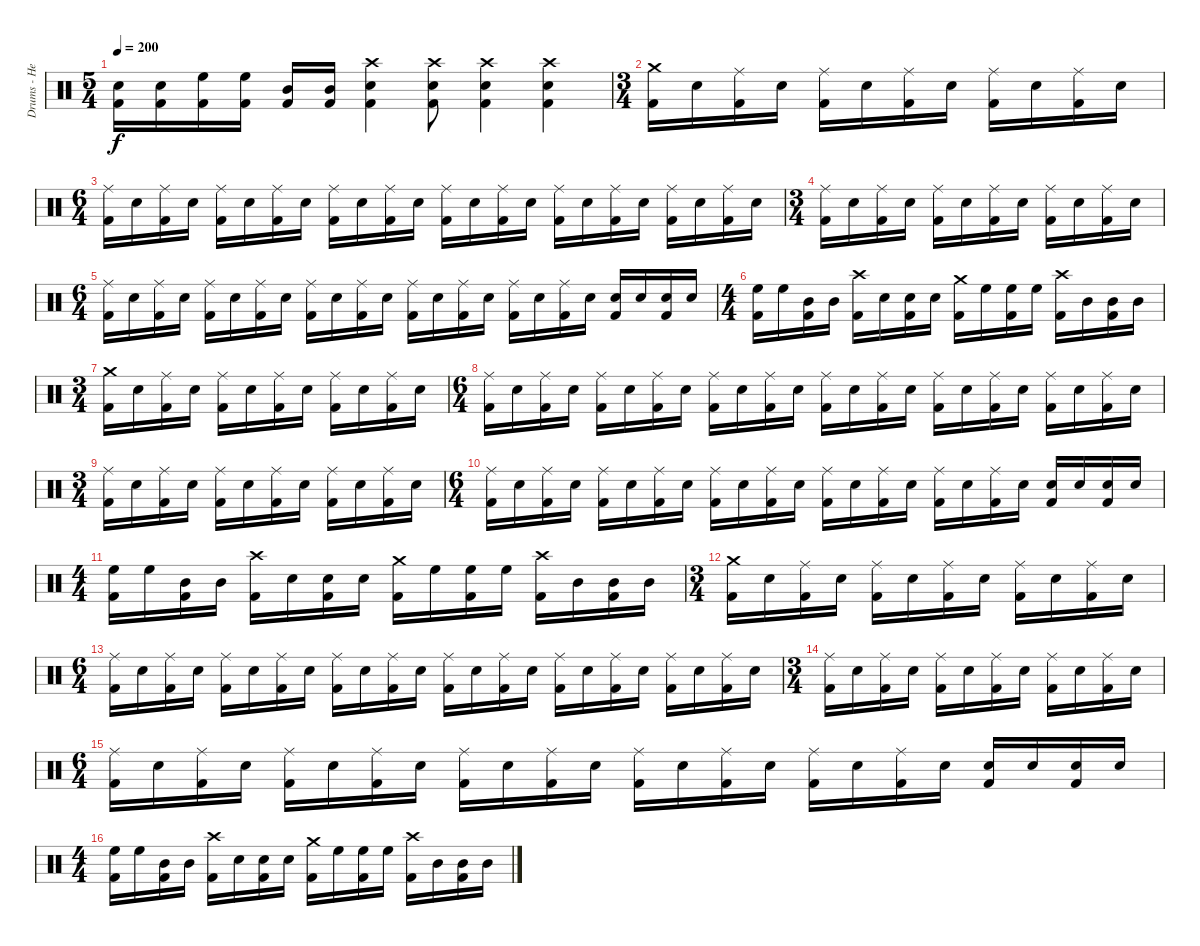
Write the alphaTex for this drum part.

\track ("Drums - Hellhammer" "Drums - He") {instrument percussion}
\staff {score}
\articulation defaults
\ts (5 4)
\tempo 200
\clef neutral
\ks c
("Electric Snare (hit)" "Kick (hit) 2").16{dy f} ("Electric Snare (hit)" "Kick (hit) 2").16 ("High Floor Tom (hit)" "Kick (hit) 2").16 ("High Floor Tom (hit)" "Kick (hit) 2").16 ("Mid Tom (hit)" "Kick (hit) 2").16 ("Mid Tom (hit)" "Kick (hit) 2").16 ("Crash high (hit)" "Electric Snare (hit)" "Kick (hit) 2").4 ("Crash high (hit)" "Electric Snare (hit)" "Kick (hit) 2").8 ("Crash high (hit)" "Electric Snare (hit)" "Kick (hit) 2").4 ("Crash high (hit)" "Electric Snare (hit)" "Kick (hit) 2").4 |
\ts (3 4)
("Crash medium (hit)" "Kick (hit) 2").16 "Electric Snare (hit)".16 ("Ride (middle)" "Kick (hit) 2").16 "Electric Snare (hit)".16 ("Ride (middle)" "Kick (hit) 2").16 "Electric Snare (hit)".16 ("Ride (middle)" "Kick (hit) 2").16 "Electric Snare (hit)".16 ("Ride (middle)" "Kick (hit) 2").16 "Electric Snare (hit)".16 ("Ride (middle)" "Kick (hit) 2").16 "Electric Snare (hit)".16 |
\ts (6 4)
("Ride (middle)" "Kick (hit) 2").16 "Electric Snare (hit)".16 ("Ride (middle)" "Kick (hit) 2").16 "Electric Snare (hit)".16 ("Ride (middle)" "Kick (hit) 2").16 "Electric Snare (hit)".16 ("Ride (middle)" "Kick (hit) 2").16 "Electric Snare (hit)".16 ("Ride (middle)" "Kick (hit) 2").16 "Electric Snare (hit)".16 ("Ride (middle)" "Kick (hit) 2").16 "Electric Snare (hit)".16 ("Ride (middle)" "Kick (hit) 2").16 "Electric Snare (hit)".16 ("Ride (middle)" "Kick (hit) 2").16 "Electric Snare (hit)".16 ("Ride (middle)" "Kick (hit) 2").16 "Electric Snare (hit)".16 ("Ride (middle)" "Kick (hit) 2").16 "Electric Snare (hit)".16 ("Ride (middle)" "Kick (hit) 2").16 "Electric Snare (hit)".16 ("Ride (middle)" "Kick (hit) 2").16 "Electric Snare (hit)".16 |
\ts (3 4)
("Ride (middle)" "Kick (hit) 2").16 "Electric Snare (hit)".16 ("Ride (middle)" "Kick (hit) 2").16 "Electric Snare (hit)".16 ("Ride (middle)" "Kick (hit) 2").16 "Electric Snare (hit)".16 ("Ride (middle)" "Kick (hit) 2").16 "Electric Snare (hit)".16 ("Ride (middle)" "Kick (hit) 2").16 "Electric Snare (hit)".16 ("Ride (middle)" "Kick (hit) 2").16 "Electric Snare (hit)".16 |
\ts (6 4)
("Ride (middle)" "Kick (hit) 2").16 "Electric Snare (hit)".16 ("Ride (middle)" "Kick (hit) 2").16 "Electric Snare (hit)".16 ("Ride (middle)" "Kick (hit) 2").16 "Electric Snare (hit)".16 ("Ride (middle)" "Kick (hit) 2").16 "Electric Snare (hit)".16 ("Ride (middle)" "Kick (hit) 2").16 "Electric Snare (hit)".16 ("Ride (middle)" "Kick (hit) 2").16 "Electric Snare (hit)".16 ("Ride (middle)" "Kick (hit) 2").16 "Electric Snare (hit)".16 ("Ride (middle)" "Kick (hit) 2").16 "Electric Snare (hit)".16 ("Ride (middle)" "Kick (hit) 2").16 "Electric Snare (hit)".16 ("Ride (middle)" "Kick (hit) 2").16 "Electric Snare (hit)".16 ("Electric Snare (hit)" "Kick (hit) 2").16 "Electric Snare (hit)".16 ("Electric Snare (hit)" "Kick (hit) 2").16 "Electric Snare (hit)".16 |
\ts (4 4)
("High Floor Tom (hit)" "Kick (hit) 2").16 "High Floor Tom (hit)".16 ("Mid Tom (hit)" "Kick (hit) 2").16 "Mid Tom (hit)".16 ("Crash high (hit)" "Kick (hit) 2").16 "Electric Snare (hit)".16 ("Electric Snare (hit)" "Kick (hit) 2").16 "Electric Snare (hit)".16 ("Crash medium (hit)" "Kick (hit) 2").16 "High Floor Tom (hit)".16 ("High Floor Tom (hit)" "Kick (hit) 2").16 "High Floor Tom (hit)".16 ("Crash high (hit)" "Kick (hit) 2").16 "Mid Tom (hit)".16 ("Mid Tom (hit)" "Kick (hit) 2").16 "Mid Tom (hit)".16 |
\ts (3 4)
("Crash medium (hit)" "Kick (hit) 2").16 "Electric Snare (hit)".16 ("Ride (middle)" "Kick (hit) 2").16 "Electric Snare (hit)".16 ("Ride (middle)" "Kick (hit) 2").16 "Electric Snare (hit)".16 ("Ride (middle)" "Kick (hit) 2").16 "Electric Snare (hit)".16 ("Ride (middle)" "Kick (hit) 2").16 "Electric Snare (hit)".16 ("Ride (middle)" "Kick (hit) 2").16 "Electric Snare (hit)".16 |
\ts (6 4)
("Ride (middle)" "Kick (hit) 2").16 "Electric Snare (hit)".16 ("Ride (middle)" "Kick (hit) 2").16 "Electric Snare (hit)".16 ("Ride (middle)" "Kick (hit) 2").16 "Electric Snare (hit)".16 ("Ride (middle)" "Kick (hit) 2").16 "Electric Snare (hit)".16 ("Ride (middle)" "Kick (hit) 2").16 "Electric Snare (hit)".16 ("Ride (middle)" "Kick (hit) 2").16 "Electric Snare (hit)".16 ("Ride (middle)" "Kick (hit) 2").16 "Electric Snare (hit)".16 ("Ride (middle)" "Kick (hit) 2").16 "Electric Snare (hit)".16 ("Ride (middle)" "Kick (hit) 2").16 "Electric Snare (hit)".16 ("Ride (middle)" "Kick (hit) 2").16 "Electric Snare (hit)".16 ("Ride (middle)" "Kick (hit) 2").16 "Electric Snare (hit)".16 ("Ride (middle)" "Kick (hit) 2").16 "Electric Snare (hit)".16 |
\ts (3 4)
("Ride (middle)" "Kick (hit) 2").16 "Electric Snare (hit)".16 ("Ride (middle)" "Kick (hit) 2").16 "Electric Snare (hit)".16 ("Ride (middle)" "Kick (hit) 2").16 "Electric Snare (hit)".16 ("Ride (middle)" "Kick (hit) 2").16 "Electric Snare (hit)".16 ("Ride (middle)" "Kick (hit) 2").16 "Electric Snare (hit)".16 ("Ride (middle)" "Kick (hit) 2").16 "Electric Snare (hit)".16 |
\ts (6 4)
("Ride (middle)" "Kick (hit) 2").16 "Electric Snare (hit)".16 ("Ride (middle)" "Kick (hit) 2").16 "Electric Snare (hit)".16 ("Ride (middle)" "Kick (hit) 2").16 "Electric Snare (hit)".16 ("Ride (middle)" "Kick (hit) 2").16 "Electric Snare (hit)".16 ("Ride (middle)" "Kick (hit) 2").16 "Electric Snare (hit)".16 ("Ride (middle)" "Kick (hit) 2").16 "Electric Snare (hit)".16 ("Ride (middle)" "Kick (hit) 2").16 "Electric Snare (hit)".16 ("Ride (middle)" "Kick (hit) 2").16 "Electric Snare (hit)".16 ("Ride (middle)" "Kick (hit) 2").16 "Electric Snare (hit)".16 ("Ride (middle)" "Kick (hit) 2").16 "Electric Snare (hit)".16 ("Electric Snare (hit)" "Kick (hit) 2").16 "Electric Snare (hit)".16 ("Electric Snare (hit)" "Kick (hit) 2").16 "Electric Snare (hit)".16 |
\ts (4 4)
("High Floor Tom (hit)" "Kick (hit) 2").16 "High Floor Tom (hit)".16 ("Mid Tom (hit)" "Kick (hit) 2").16 "Mid Tom (hit)".16 ("Crash high (hit)" "Kick (hit) 2").16 "Electric Snare (hit)".16 ("Electric Snare (hit)" "Kick (hit) 2").16 "Electric Snare (hit)".16 ("Crash medium (hit)" "Kick (hit) 2").16 "High Floor Tom (hit)".16 ("High Floor Tom (hit)" "Kick (hit) 2").16 "High Floor Tom (hit)".16 ("Crash high (hit)" "Kick (hit) 2").16 "Mid Tom (hit)".16 ("Mid Tom (hit)" "Kick (hit) 2").16 "Mid Tom (hit)".16 |
\ts (3 4)
("Crash medium (hit)" "Kick (hit) 2").16 "Electric Snare (hit)".16 ("Ride (middle)" "Kick (hit) 2").16 "Electric Snare (hit)".16 ("Ride (middle)" "Kick (hit) 2").16 "Electric Snare (hit)".16 ("Ride (middle)" "Kick (hit) 2").16 "Electric Snare (hit)".16 ("Ride (middle)" "Kick (hit) 2").16 "Electric Snare (hit)".16 ("Ride (middle)" "Kick (hit) 2").16 "Electric Snare (hit)".16 |
\ts (6 4)
("Ride (middle)" "Kick (hit) 2").16 "Electric Snare (hit)".16 ("Ride (middle)" "Kick (hit) 2").16 "Electric Snare (hit)".16 ("Ride (middle)" "Kick (hit) 2").16 "Electric Snare (hit)".16 ("Ride (middle)" "Kick (hit) 2").16 "Electric Snare (hit)".16 ("Ride (middle)" "Kick (hit) 2").16 "Electric Snare (hit)".16 ("Ride (middle)" "Kick (hit) 2").16 "Electric Snare (hit)".16 ("Ride (middle)" "Kick (hit) 2").16 "Electric Snare (hit)".16 ("Ride (middle)" "Kick (hit) 2").16 "Electric Snare (hit)".16 ("Ride (middle)" "Kick (hit) 2").16 "Electric Snare (hit)".16 ("Ride (middle)" "Kick (hit) 2").16 "Electric Snare (hit)".16 ("Ride (middle)" "Kick (hit) 2").16 "Electric Snare (hit)".16 ("Ride (middle)" "Kick (hit) 2").16 "Electric Snare (hit)".16 |
\ts (3 4)
("Ride (middle)" "Kick (hit) 2").16 "Electric Snare (hit)".16 ("Ride (middle)" "Kick (hit) 2").16 "Electric Snare (hit)".16 ("Ride (middle)" "Kick (hit) 2").16 "Electric Snare (hit)".16 ("Ride (middle)" "Kick (hit) 2").16 "Electric Snare (hit)".16 ("Ride (middle)" "Kick (hit) 2").16 "Electric Snare (hit)".16 ("Ride (middle)" "Kick (hit) 2").16 "Electric Snare (hit)".16 |
\ts (6 4)
("Ride (middle)" "Kick (hit) 2").16 "Electric Snare (hit)".16 ("Ride (middle)" "Kick (hit) 2").16 "Electric Snare (hit)".16 ("Ride (middle)" "Kick (hit) 2").16 "Electric Snare (hit)".16 ("Ride (middle)" "Kick (hit) 2").16 "Electric Snare (hit)".16 ("Ride (middle)" "Kick (hit) 2").16 "Electric Snare (hit)".16 ("Ride (middle)" "Kick (hit) 2").16 "Electric Snare (hit)".16 ("Ride (middle)" "Kick (hit) 2").16 "Electric Snare (hit)".16 ("Ride (middle)" "Kick (hit) 2").16 "Electric Snare (hit)".16 ("Ride (middle)" "Kick (hit) 2").16 "Electric Snare (hit)".16 ("Ride (middle)" "Kick (hit) 2").16 "Electric Snare (hit)".16 ("Electric Snare (hit)" "Kick (hit) 2").16 "Electric Snare (hit)".16 ("Electric Snare (hit)" "Kick (hit) 2").16 "Electric Snare (hit)".16 |
\ts (4 4)
("High Floor Tom (hit)" "Kick (hit) 2").16 "High Floor Tom (hit)".16 ("Mid Tom (hit)" "Kick (hit) 2").16 "Mid Tom (hit)".16 ("Crash high (hit)" "Kick (hit) 2").16 "Electric Snare (hit)".16 ("Electric Snare (hit)" "Kick (hit) 2").16 "Electric Snare (hit)".16 ("Crash medium (hit)" "Kick (hit) 2").16 "High Floor Tom (hit)".16 ("High Floor Tom (hit)" "Kick (hit) 2").16 "High Floor Tom (hit)".16 ("Crash high (hit)" "Kick (hit) 2").16 "Mid Tom (hit)".16 ("Mid Tom (hit)" "Kick (hit) 2").16 "Mid Tom (hit)".16
